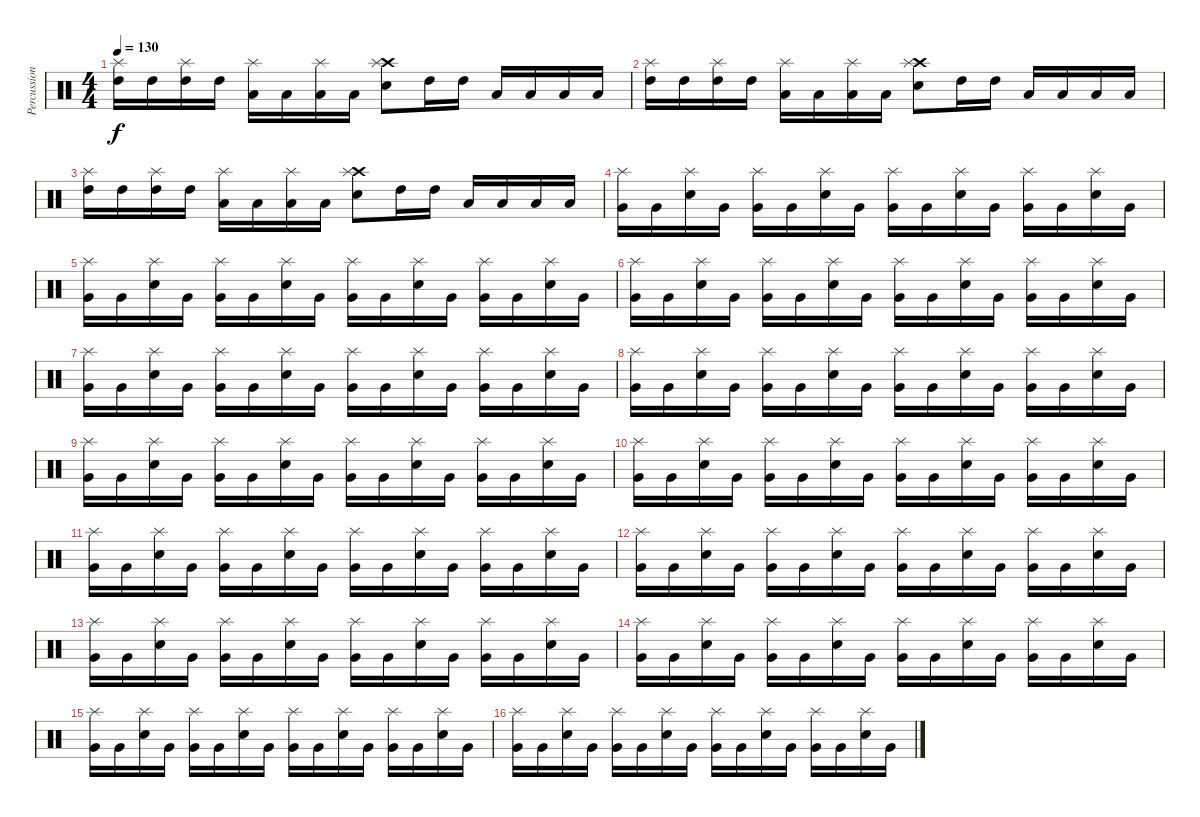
\track ("Percussion" "Percussion") {instrument percussion}
\staff {score}
\articulation defaults
\ts (4 4)
\tempo 130
\clef neutral
\ks c
("High Tom (hit)" "Splash (hit)").16{dy f} "High Tom (hit)".16 ("High Tom (hit)" "Splash (hit)").16 "High Tom (hit)".16 ("Low Tom (hit)" "Splash (hit)").16 "Low Tom (hit)".16 ("Low Tom (hit)" "Splash (hit)").16 "Low Tom (hit)".16 ("Crash high (hit)" "Splash (hit)" "Snare (hit) 2").8 "High Tom (hit)".16 "High Tom (hit)".16 "Low Tom (hit)".16 "Low Tom (hit)".16 "Low Tom (hit)".16 "Low Tom (hit)".16 |
("High Tom (hit)" "Splash (hit)").16 "High Tom (hit)".16 ("High Tom (hit)" "Splash (hit)").16 "High Tom (hit)".16 ("Low Tom (hit)" "Splash (hit)").16 "Low Tom (hit)".16 ("Low Tom (hit)" "Splash (hit)").16 "Low Tom (hit)".16 ("Crash high (hit)" "Splash (hit)" "Snare (hit) 2").8 "High Tom (hit)".16 "High Tom (hit)".16 "Low Tom (hit)".16 "Low Tom (hit)".16 "Low Tom (hit)".16 "Low Tom (hit)".16 |
("High Tom (hit)" "Splash (hit)").16 "High Tom (hit)".16 ("High Tom (hit)" "Splash (hit)").16 "High Tom (hit)".16 ("Low Tom (hit)" "Splash (hit)").16 "Low Tom (hit)".16 ("Low Tom (hit)" "Splash (hit)").16 "Low Tom (hit)".16 ("Crash high (hit)" "Splash (hit)" "Snare (hit) 2").8 "High Tom (hit)".16 "High Tom (hit)".16 "Low Tom (hit)".16 "Low Tom (hit)".16 "Low Tom (hit)".16 "Low Tom (hit)".16 |
("Very Low Tom (hit)" "Splash (hit)").16 "Very Low Tom (hit)".16 ("Snare (hit) 2" "Splash (hit)").16 "Very Low Tom (hit)".16 ("Very Low Tom (hit)" "Splash (hit)").16 "Very Low Tom (hit)".16 ("Snare (hit) 2" "Splash (hit)").16 "Very Low Tom (hit)".16 ("Very Low Tom (hit)" "Splash (hit)").16 "Very Low Tom (hit)".16 ("Snare (hit) 2" "Splash (hit)").16 "Very Low Tom (hit)".16 ("Very Low Tom (hit)" "Splash (hit)").16 "Very Low Tom (hit)".16 ("Snare (hit) 2" "Splash (hit)").16 "Very Low Tom (hit)".16 |
("Very Low Tom (hit)" "Splash (hit)").16 "Very Low Tom (hit)".16 ("Snare (hit) 2" "Splash (hit)").16 "Very Low Tom (hit)".16 ("Very Low Tom (hit)" "Splash (hit)").16 "Very Low Tom (hit)".16 ("Snare (hit) 2" "Splash (hit)").16 "Very Low Tom (hit)".16 ("Very Low Tom (hit)" "Splash (hit)").16 "Very Low Tom (hit)".16 ("Snare (hit) 2" "Splash (hit)").16 "Very Low Tom (hit)".16 ("Very Low Tom (hit)" "Splash (hit)").16 "Very Low Tom (hit)".16 ("Snare (hit) 2" "Splash (hit)").16 "Very Low Tom (hit)".16 |
("Very Low Tom (hit)" "Splash (hit)").16 "Very Low Tom (hit)".16 ("Snare (hit) 2" "Splash (hit)").16 "Very Low Tom (hit)".16 ("Very Low Tom (hit)" "Splash (hit)").16 "Very Low Tom (hit)".16 ("Snare (hit) 2" "Splash (hit)").16 "Very Low Tom (hit)".16 ("Very Low Tom (hit)" "Splash (hit)").16 "Very Low Tom (hit)".16 ("Snare (hit) 2" "Splash (hit)").16 "Very Low Tom (hit)".16 ("Very Low Tom (hit)" "Splash (hit)").16 "Very Low Tom (hit)".16 ("Snare (hit) 2" "Splash (hit)").16 "Very Low Tom (hit)".16 |
("Very Low Tom (hit)" "Splash (hit)").16 "Very Low Tom (hit)".16 ("Snare (hit) 2" "Splash (hit)").16 "Very Low Tom (hit)".16 ("Very Low Tom (hit)" "Splash (hit)").16 "Very Low Tom (hit)".16 ("Snare (hit) 2" "Splash (hit)").16 "Very Low Tom (hit)".16 ("Very Low Tom (hit)" "Splash (hit)").16 "Very Low Tom (hit)".16 ("Snare (hit) 2" "Splash (hit)").16 "Very Low Tom (hit)".16 ("Very Low Tom (hit)" "Splash (hit)").16 "Very Low Tom (hit)".16 ("Snare (hit) 2" "Splash (hit)").16 "Very Low Tom (hit)".16 |
("Very Low Tom (hit)" "Splash (hit)").16 "Very Low Tom (hit)".16 ("Snare (hit) 2" "Splash (hit)").16 "Very Low Tom (hit)".16 ("Very Low Tom (hit)" "Splash (hit)").16 "Very Low Tom (hit)".16 ("Snare (hit) 2" "Splash (hit)").16 "Very Low Tom (hit)".16 ("Very Low Tom (hit)" "Splash (hit)").16 "Very Low Tom (hit)".16 ("Snare (hit) 2" "Splash (hit)").16 "Very Low Tom (hit)".16 ("Very Low Tom (hit)" "Splash (hit)").16 "Very Low Tom (hit)".16 ("Snare (hit) 2" "Splash (hit)").16 "Very Low Tom (hit)".16 |
("Very Low Tom (hit)" "Splash (hit)").16 "Very Low Tom (hit)".16 ("Snare (hit) 2" "Splash (hit)").16 "Very Low Tom (hit)".16 ("Very Low Tom (hit)" "Splash (hit)").16 "Very Low Tom (hit)".16 ("Snare (hit) 2" "Splash (hit)").16 "Very Low Tom (hit)".16 ("Very Low Tom (hit)" "Splash (hit)").16 "Very Low Tom (hit)".16 ("Snare (hit) 2" "Splash (hit)").16 "Very Low Tom (hit)".16 ("Very Low Tom (hit)" "Splash (hit)").16 "Very Low Tom (hit)".16 ("Snare (hit) 2" "Splash (hit)").16 "Very Low Tom (hit)".16 |
("Very Low Tom (hit)" "Splash (hit)").16 "Very Low Tom (hit)".16 ("Snare (hit) 2" "Splash (hit)").16 "Very Low Tom (hit)".16 ("Very Low Tom (hit)" "Splash (hit)").16 "Very Low Tom (hit)".16 ("Snare (hit) 2" "Splash (hit)").16 "Very Low Tom (hit)".16 ("Very Low Tom (hit)" "Splash (hit)").16 "Very Low Tom (hit)".16 ("Snare (hit) 2" "Splash (hit)").16 "Very Low Tom (hit)".16 ("Very Low Tom (hit)" "Splash (hit)").16 "Very Low Tom (hit)".16 ("Snare (hit) 2" "Splash (hit)").16 "Very Low Tom (hit)".16 |
("Very Low Tom (hit)" "Splash (hit)").16 "Very Low Tom (hit)".16 ("Snare (hit) 2" "Splash (hit)").16 "Very Low Tom (hit)".16 ("Very Low Tom (hit)" "Splash (hit)").16 "Very Low Tom (hit)".16 ("Snare (hit) 2" "Splash (hit)").16 "Very Low Tom (hit)".16 ("Very Low Tom (hit)" "Splash (hit)").16 "Very Low Tom (hit)".16 ("Snare (hit) 2" "Splash (hit)").16 "Very Low Tom (hit)".16 ("Very Low Tom (hit)" "Splash (hit)").16 "Very Low Tom (hit)".16 ("Snare (hit) 2" "Splash (hit)").16 "Very Low Tom (hit)".16 |
("Very Low Tom (hit)" "Splash (hit)").16 "Very Low Tom (hit)".16 ("Snare (hit) 2" "Splash (hit)").16 "Very Low Tom (hit)".16 ("Very Low Tom (hit)" "Splash (hit)").16 "Very Low Tom (hit)".16 ("Snare (hit) 2" "Splash (hit)").16 "Very Low Tom (hit)".16 ("Very Low Tom (hit)" "Splash (hit)").16 "Very Low Tom (hit)".16 ("Snare (hit) 2" "Splash (hit)").16 "Very Low Tom (hit)".16 ("Very Low Tom (hit)" "Splash (hit)").16 "Very Low Tom (hit)".16 ("Snare (hit) 2" "Splash (hit)").16 "Very Low Tom (hit)".16 |
("Very Low Tom (hit)" "Splash (hit)").16 "Very Low Tom (hit)".16 ("Snare (hit) 2" "Splash (hit)").16 "Very Low Tom (hit)".16 ("Very Low Tom (hit)" "Splash (hit)").16 "Very Low Tom (hit)".16 ("Snare (hit) 2" "Splash (hit)").16 "Very Low Tom (hit)".16 ("Very Low Tom (hit)" "Splash (hit)").16 "Very Low Tom (hit)".16 ("Snare (hit) 2" "Splash (hit)").16 "Very Low Tom (hit)".16 ("Very Low Tom (hit)" "Splash (hit)").16 "Very Low Tom (hit)".16 ("Snare (hit) 2" "Splash (hit)").16 "Very Low Tom (hit)".16 |
("Very Low Tom (hit)" "Splash (hit)").16 "Very Low Tom (hit)".16 ("Snare (hit) 2" "Splash (hit)").16 "Very Low Tom (hit)".16 ("Very Low Tom (hit)" "Splash (hit)").16 "Very Low Tom (hit)".16 ("Snare (hit) 2" "Splash (hit)").16 "Very Low Tom (hit)".16 ("Very Low Tom (hit)" "Splash (hit)").16 "Very Low Tom (hit)".16 ("Snare (hit) 2" "Splash (hit)").16 "Very Low Tom (hit)".16 ("Very Low Tom (hit)" "Splash (hit)").16 "Very Low Tom (hit)".16 ("Snare (hit) 2" "Splash (hit)").16 "Very Low Tom (hit)".16 |
("Very Low Tom (hit)" "Splash (hit)").16 "Very Low Tom (hit)".16 ("Snare (hit) 2" "Splash (hit)").16 "Very Low Tom (hit)".16 ("Very Low Tom (hit)" "Splash (hit)").16 "Very Low Tom (hit)".16 ("Snare (hit) 2" "Splash (hit)").16 "Very Low Tom (hit)".16 ("Very Low Tom (hit)" "Splash (hit)").16 "Very Low Tom (hit)".16 ("Snare (hit) 2" "Splash (hit)").16 "Very Low Tom (hit)".16 ("Very Low Tom (hit)" "Splash (hit)").16 "Very Low Tom (hit)".16 ("Snare (hit) 2" "Splash (hit)").16 "Very Low Tom (hit)".16 |
("Very Low Tom (hit)" "Splash (hit)").16 "Very Low Tom (hit)".16 ("Snare (hit) 2" "Splash (hit)").16 "Very Low Tom (hit)".16 ("Very Low Tom (hit)" "Splash (hit)").16 "Very Low Tom (hit)".16 ("Snare (hit) 2" "Splash (hit)").16 "Very Low Tom (hit)".16 ("Very Low Tom (hit)" "Splash (hit)").16 "Very Low Tom (hit)".16 ("Snare (hit) 2" "Splash (hit)").16 "Very Low Tom (hit)".16 ("Very Low Tom (hit)" "Splash (hit)").16 "Very Low Tom (hit)".16 ("Snare (hit) 2" "Splash (hit)").16 "Very Low Tom (hit)".16
